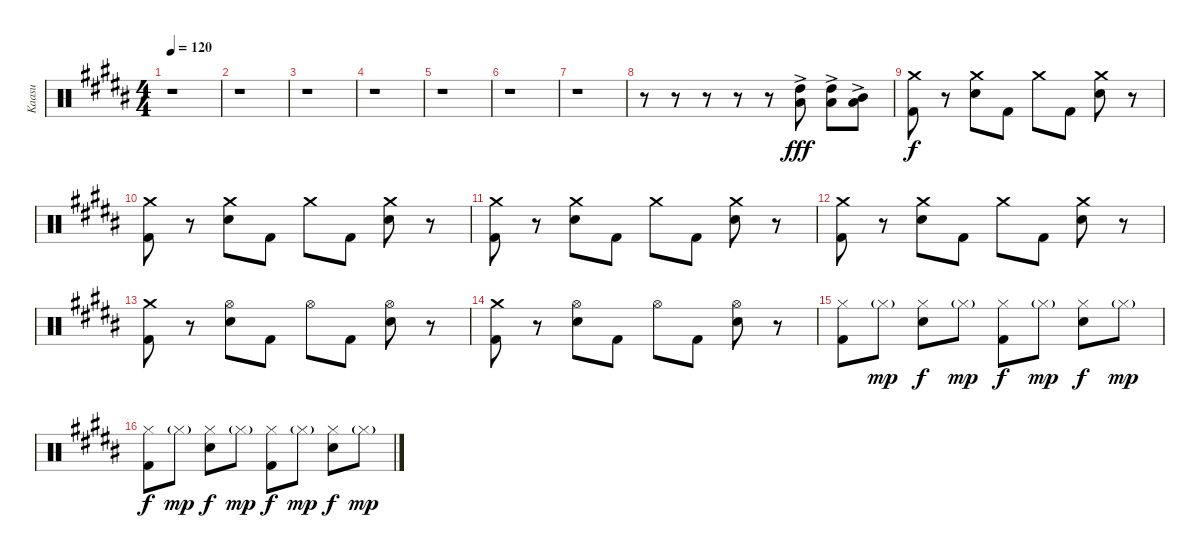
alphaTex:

\track ("Kaasu" "Kaasu") {instrument percussion}
\staff {score}
\articulation defaults
\ts (4 4)
\tempo 120
\clef neutral
\ks b
r.1{dy fff} |
r.1 |
r.1 |
r.1 |
r.1 |
r.1 |
r.1 |
r.8 r.8 r.8 r.8 r.8 ("High Tom (hit)"{ac} "Low Tom (hit)"{ac}).8{volume 16} ("High Tom (hit)"{ac} "Low Tom (hit)"{ac}).8 ("Mid Tom (hit)"{ac} "Low Tom (hit)"{ac}).8 |
("Crash medium (hit)" "Kick (hit) 2").8{dy f volume 13} r.8 ("Crash medium (hit)" "Snare (hit) 2").8 "Kick (hit) 2".8 "Crash medium (hit)".8 "Kick (hit) 2".8 ("Crash medium (hit)" "Snare (hit) 2").8 r.8 |
("Crash medium (hit)" "Kick (hit) 2").8 r.8 ("Crash medium (hit)" "Snare (hit) 2").8 "Kick (hit) 2".8 "Crash medium (hit)".8 "Kick (hit) 2".8 ("Crash medium (hit)" "Snare (hit) 2").8 r.8 |
("Crash medium (hit)" "Kick (hit) 2").8 r.8 ("Crash medium (hit)" "Snare (hit) 2").8 "Kick (hit) 2".8 "Crash medium (hit)".8 "Kick (hit) 2".8 ("Crash medium (hit)" "Snare (hit) 2").8 r.8 |
("Crash medium (hit)" "Kick (hit) 2").8 r.8 ("Crash medium (hit)" "Snare (hit) 2").8 "Kick (hit) 2".8 "Crash medium (hit)".8 "Kick (hit) 2".8 ("Crash medium (hit)" "Snare (hit) 2").8 r.8 |
("Crash medium (hit)" "Kick (hit) 2").8 r.8 ("Hi-Hat (open)" "Snare (hit) 2").8 "Kick (hit) 2".8 "Hi-Hat (open)".8 "Kick (hit) 2".8 ("Hi-Hat (open)" "Snare (hit) 2").8 r.8 |
("Crash medium (hit)" "Kick (hit) 2").8 r.8 ("Hi-Hat (open)" "Snare (hit) 2").8 "Kick (hit) 2".8 "Hi-Hat (open)".8 "Kick (hit) 2".8 ("Hi-Hat (open)" "Snare (hit) 2").8 r.8 |
("Hi-Hat (closed)" "Kick (hit) 2").8 "Hi-Hat (closed)"{g}.8{dy mp} ("Hi-Hat (closed)" "Snare (hit) 2").8{dy f} "Hi-Hat (closed)"{g}.8{dy mp} ("Hi-Hat (closed)" "Kick (hit) 2").8{dy f} "Hi-Hat (closed)"{g}.8{dy mp} ("Hi-Hat (closed)" "Snare (hit) 2").8{dy f} "Hi-Hat (closed)"{g}.8{dy mp} |
("Hi-Hat (closed)" "Kick (hit) 2").8{dy f} "Hi-Hat (closed)"{g}.8{dy mp} ("Hi-Hat (closed)" "Snare (hit) 2").8{dy f} "Hi-Hat (closed)"{g}.8{dy mp} ("Hi-Hat (closed)" "Kick (hit) 2").8{dy f} "Hi-Hat (closed)"{g}.8{dy mp} ("Hi-Hat (closed)" "Snare (hit) 2").8{dy f} "Hi-Hat (closed)"{g}.8{dy mp}
